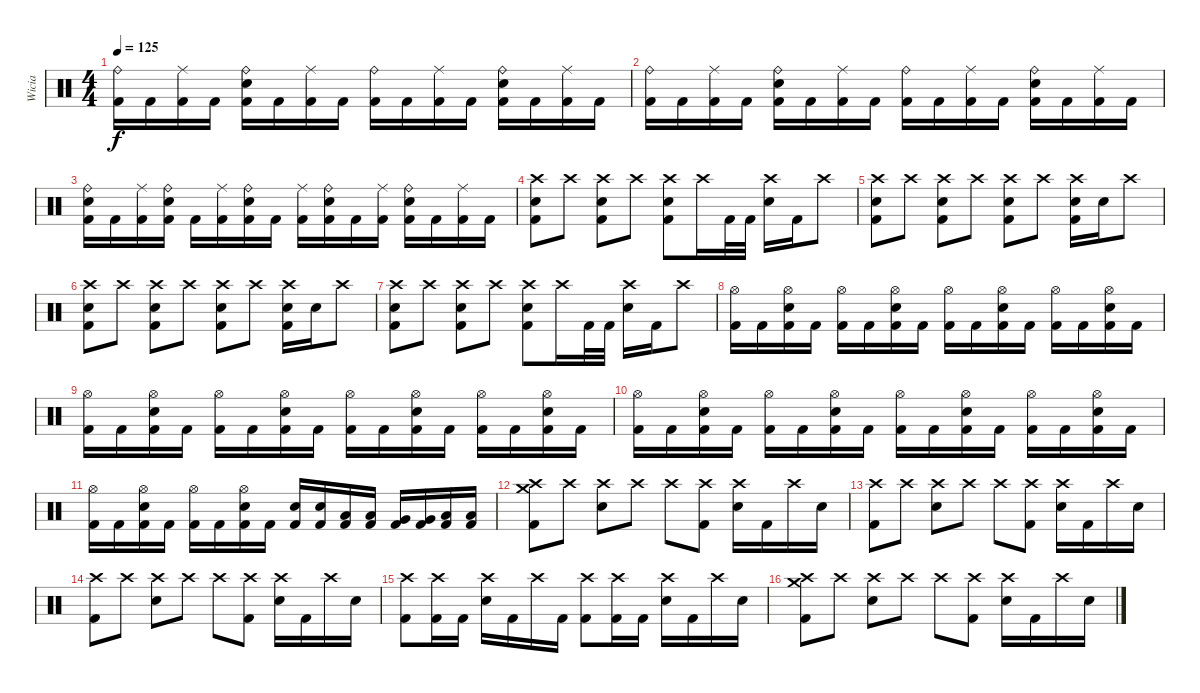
\track ("Wicia" "Wicia") {instrument percussion}
\staff {score}
\articulation defaults
\ts (4 4)
\tempo 125
\clef neutral
\ks c
("Ride (bell)" "Kick (hit) 2").16{dy f} "Kick (hit) 2".16 ("Ride (middle)" "Kick (hit) 2").16 "Kick (hit) 2".16 ("Ride (bell)" "Electric Snare (hit)" "Kick (hit) 2").16 "Kick (hit) 2".16 ("Ride (middle)" "Kick (hit) 2").16 "Kick (hit) 2".16 ("Ride (bell)" "Kick (hit) 2").16 "Kick (hit) 2".16 ("Ride (middle)" "Kick (hit) 2").16 "Kick (hit) 2".16 ("Ride (bell)" "Electric Snare (hit)" "Kick (hit) 2").16 "Kick (hit) 2".16 ("Ride (middle)" "Kick (hit) 2").16 "Kick (hit) 2".16 |
("Ride (bell)" "Kick (hit) 2").16 "Kick (hit) 2".16 ("Ride (middle)" "Kick (hit) 2").16 "Kick (hit) 2".16 ("Ride (bell)" "Electric Snare (hit)" "Kick (hit) 2").16 "Kick (hit) 2".16 ("Ride (middle)" "Kick (hit) 2").16 "Kick (hit) 2".16 ("Ride (bell)" "Kick (hit) 2").16 "Kick (hit) 2".16 ("Ride (middle)" "Kick (hit) 2").16 "Kick (hit) 2".16 ("Ride (bell)" "Electric Snare (hit)" "Kick (hit) 2").16 "Kick (hit) 2".16 ("Ride (middle)" "Kick (hit) 2").16 "Kick (hit) 2".16 |
("Ride (bell)" "Electric Snare (hit)" "Kick (hit) 2").16 "Kick (hit) 2".16 ("Ride (middle)" "Kick (hit) 2").16 ("Ride (bell)" "Electric Snare (hit)" "Kick (hit) 2").16 "Kick (hit) 2".16 ("Ride (middle)" "Kick (hit) 2").16 ("Ride (bell)" "Electric Snare (hit)" "Kick (hit) 2").16 "Kick (hit) 2".16 ("Ride (middle)" "Kick (hit) 2").16 ("Ride (bell)" "Electric Snare (hit)" "Kick (hit) 2").16 "Kick (hit) 2".16 ("Ride (middle)" "Kick (hit) 2").16 ("Ride (bell)" "Electric Snare (hit)" "Kick (hit) 2").16 "Kick (hit) 2".16 ("Ride (middle)" "Kick (hit) 2").16 "Kick (hit) 2".16 |
("Crash high (hit)" "Electric Snare (hit)" "Kick (hit) 2").8 "Crash high (hit)".8 ("Crash high (hit)" "Electric Snare (hit)" "Kick (hit) 2").8 "Crash high (hit)".8 ("Crash high (hit)" "Electric Snare (hit)" "Kick (hit) 2").8 "Crash high (hit)".16 "Kick (hit) 2".32 "Kick (hit) 2".32 ("Crash high (hit)" "Electric Snare (hit)").16 "Kick (hit) 2".16 "Crash high (hit)".8 |
("Crash high (hit)" "Electric Snare (hit)" "Kick (hit) 2").8 "Crash high (hit)".8 ("Crash high (hit)" "Electric Snare (hit)" "Kick (hit) 2").8 "Crash high (hit)".8 ("Crash high (hit)" "Electric Snare (hit)" "Kick (hit) 2").8 "Crash high (hit)".8 ("Crash high (hit)" "Electric Snare (hit)" "Kick (hit) 2").16 "Electric Snare (hit)".16 "Crash high (hit)".8 |
("Crash high (hit)" "Electric Snare (hit)" "Kick (hit) 2").8 "Crash high (hit)".8 ("Crash high (hit)" "Electric Snare (hit)" "Kick (hit) 2").8 "Crash high (hit)".8 ("Crash high (hit)" "Electric Snare (hit)" "Kick (hit) 2").8 "Crash high (hit)".8 ("Crash high (hit)" "Electric Snare (hit)" "Kick (hit) 2").16 "Electric Snare (hit)".16 "Crash high (hit)".8 |
("Crash high (hit)" "Electric Snare (hit)" "Kick (hit) 2").8 "Crash high (hit)".8 ("Crash high (hit)" "Electric Snare (hit)" "Kick (hit) 2").8 "Crash high (hit)".8 ("Crash high (hit)" "Electric Snare (hit)" "Kick (hit) 2").8 "Crash high (hit)".16 "Kick (hit) 2".32 "Kick (hit) 2".32 ("Crash high (hit)" "Electric Snare (hit)").16 "Kick (hit) 2".16 "Crash high (hit)".8 |
("Hi-Hat (open)" "Kick (hit) 2").16 "Kick (hit) 2".16 ("Hi-Hat (open)" "Electric Snare (hit)" "Kick (hit) 2").16 "Kick (hit) 2".16 ("Hi-Hat (open)" "Kick (hit) 2").16 "Kick (hit) 2".16 ("Hi-Hat (open)" "Electric Snare (hit)" "Kick (hit) 2").16 "Kick (hit) 2".16 ("Hi-Hat (open)" "Kick (hit) 2").16 "Kick (hit) 2".16 ("Hi-Hat (open)" "Electric Snare (hit)" "Kick (hit) 2").16 "Kick (hit) 2".16 ("Hi-Hat (open)" "Kick (hit) 2").16 "Kick (hit) 2".16 ("Hi-Hat (open)" "Electric Snare (hit)" "Kick (hit) 2").16 "Kick (hit) 2".16 |
("Hi-Hat (open)" "Kick (hit) 2").16 "Kick (hit) 2".16 ("Hi-Hat (open)" "Electric Snare (hit)" "Kick (hit) 2").16 "Kick (hit) 2".16 ("Hi-Hat (open)" "Kick (hit) 2").16 "Kick (hit) 2".16 ("Hi-Hat (open)" "Electric Snare (hit)" "Kick (hit) 2").16 "Kick (hit) 2".16 ("Hi-Hat (open)" "Kick (hit) 2").16 "Kick (hit) 2".16 ("Hi-Hat (open)" "Electric Snare (hit)" "Kick (hit) 2").16 "Kick (hit) 2".16 ("Hi-Hat (open)" "Kick (hit) 2").16 "Kick (hit) 2".16 ("Hi-Hat (open)" "Electric Snare (hit)" "Kick (hit) 2").16 "Kick (hit) 2".16 |
("Hi-Hat (open)" "Kick (hit) 2").16 "Kick (hit) 2".16 ("Hi-Hat (open)" "Electric Snare (hit)" "Kick (hit) 2").16 "Kick (hit) 2".16 ("Hi-Hat (open)" "Kick (hit) 2").16 "Kick (hit) 2".16 ("Hi-Hat (open)" "Electric Snare (hit)" "Kick (hit) 2").16 "Kick (hit) 2".16 ("Hi-Hat (open)" "Kick (hit) 2").16 "Kick (hit) 2".16 ("Hi-Hat (open)" "Electric Snare (hit)" "Kick (hit) 2").16 "Kick (hit) 2".16 ("Hi-Hat (open)" "Kick (hit) 2").16 "Kick (hit) 2".16 ("Hi-Hat (open)" "Electric Snare (hit)" "Kick (hit) 2").16 "Kick (hit) 2".16 |
("Hi-Hat (open)" "Kick (hit) 2").16 "Kick (hit) 2".16 ("Hi-Hat (open)" "Electric Snare (hit)" "Kick (hit) 2").16 "Kick (hit) 2".16 ("Hi-Hat (open)" "Kick (hit) 2").16 "Kick (hit) 2".16 ("Hi-Hat (open)" "Electric Snare (hit)" "Kick (hit) 2").16 "Kick (hit) 2".16 ("Electric Snare (hit)" "Kick (hit) 2").16 ("Electric Snare (hit)" "Kick (hit) 2").16 ("Low Tom (hit)" "Kick (hit) 2").16 ("Low Tom (hit)" "Kick (hit) 2").16 ("Very Low Tom (hit)" "Kick (hit) 2").16 ("Very Low Tom (hit)" "Kick (hit) 2").16 ("Low Floor Tom (hit)" "Kick (hit) 2").16 ("Low Floor Tom (hit)" "Kick (hit) 2").16 |
("Crash high (hit)" "Crash medium (hit)" "Kick (hit) 2").8 "Crash high (hit)".8 ("Crash high (hit)" "Electric Snare (hit)").8 "Crash high (hit)".8 "Crash high (hit)".8 ("Crash high (hit)" "Kick (hit) 2").8 ("Crash high (hit)" "Electric Snare (hit)").16 "Kick (hit) 2".16 "Crash high (hit)".16 "Electric Snare (hit)".16 |
("Crash high (hit)" "Kick (hit) 2").8 "Crash high (hit)".8 ("Crash high (hit)" "Electric Snare (hit)").8 "Crash high (hit)".8 "Crash high (hit)".8 ("Crash high (hit)" "Kick (hit) 2").8 ("Crash high (hit)" "Electric Snare (hit)").16 "Kick (hit) 2".16 "Crash high (hit)".16 "Electric Snare (hit)".16 |
("Crash high (hit)" "Kick (hit) 2").8 "Crash high (hit)".8 ("Crash high (hit)" "Electric Snare (hit)").8 "Crash high (hit)".8 "Crash high (hit)".8 ("Crash high (hit)" "Kick (hit) 2").8 ("Crash high (hit)" "Electric Snare (hit)").16 "Kick (hit) 2".16 "Crash high (hit)".16 "Electric Snare (hit)".16 |
("Crash high (hit)" "Kick (hit) 2").8 ("Crash high (hit)" "Kick (hit) 2").16 "Kick (hit) 2".16 ("Crash high (hit)" "Electric Snare (hit)").16 "Kick (hit) 2".16 "Crash high (hit)".16 "Kick (hit) 2".16 ("Crash high (hit)" "Kick (hit) 2").8 ("Crash high (hit)" "Kick (hit) 2").16 "Kick (hit) 2".16 ("Crash high (hit)" "Electric Snare (hit)").16 "Kick (hit) 2".16 "Crash high (hit)".16 "Electric Snare (hit)".16 |
("Crash high (hit)" "Crash medium (hit)" "Kick (hit) 2").8 "Crash high (hit)".8 ("Crash high (hit)" "Electric Snare (hit)").8 "Crash high (hit)".8 "Crash high (hit)".8 ("Crash high (hit)" "Kick (hit) 2").8 ("Crash high (hit)" "Electric Snare (hit)").16 "Kick (hit) 2".16 "Crash high (hit)".16 "Electric Snare (hit)".16
